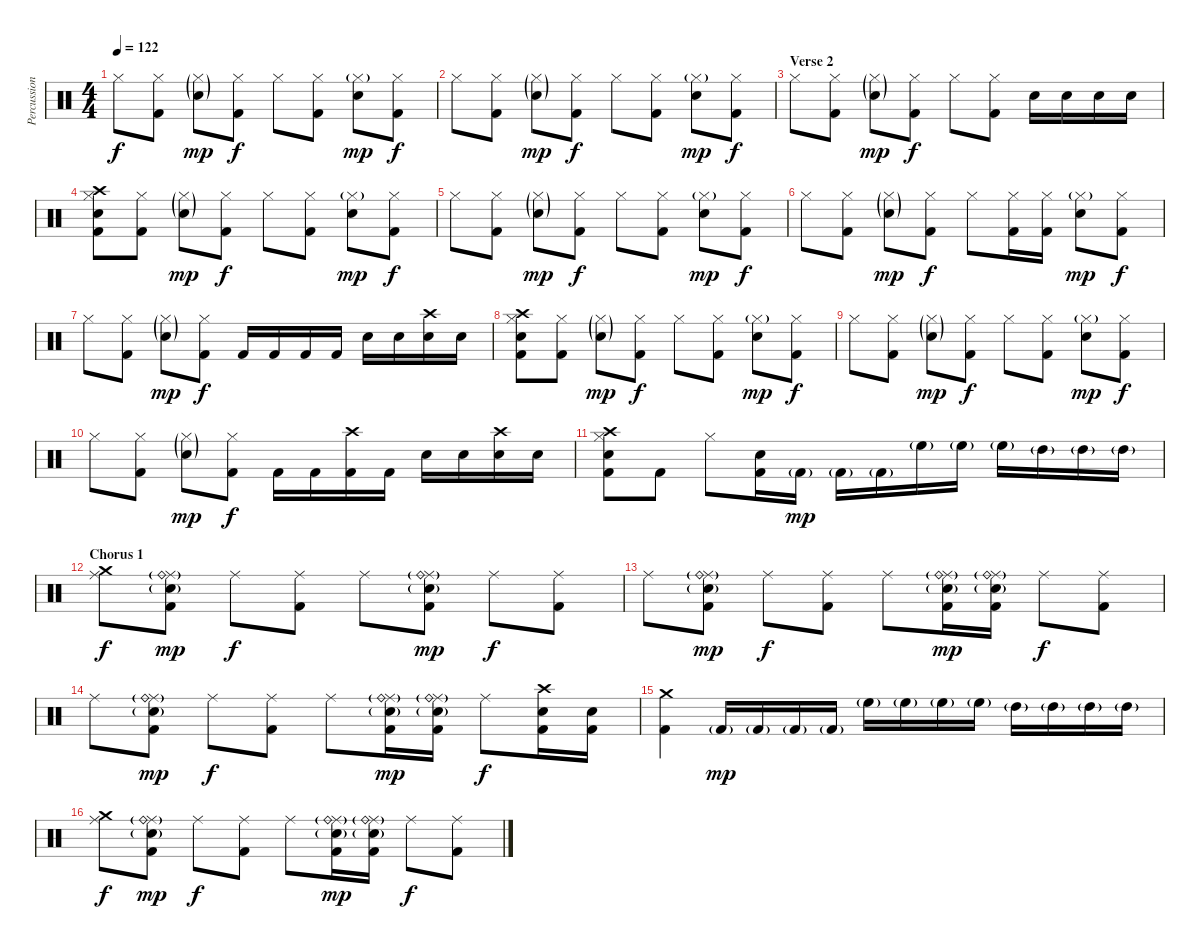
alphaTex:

\track ("Percussion" "Percussion") {instrument percussion}
\staff {score}
\articulation defaults
\ts (4 4)
\tempo 122
\clef neutral
\ks c "Hi-Hat (closed)".8{dy f}
("Hi-Hat (closed)" "Kick (hit) 2").8 ("Hi-Hat (closed)"{g} "Snare (hit) 2"{g}).8{dy mp} ("Hi-Hat (closed)" "Kick (hit) 2").8{dy f} "Hi-Hat (closed)".8 ("Hi-Hat (closed)" "Kick (hit) 2").8 ("Hi-Hat (closed)"{g} "Snare (hit) 2").8{dy mp} ("Hi-Hat (closed)" "Kick (hit) 2").8{dy f} |
"Hi-Hat (closed)".8 ("Hi-Hat (closed)" "Kick (hit) 2").8 ("Hi-Hat (closed)"{g} "Snare (hit) 2"{g}).8{dy mp} ("Hi-Hat (closed)" "Kick (hit) 2").8{dy f} "Hi-Hat (closed)".8 ("Hi-Hat (closed)" "Kick (hit) 2").8 ("Hi-Hat (closed)"{g} "Snare (hit) 2").8{dy mp} ("Hi-Hat (closed)" "Kick (hit) 2").8{dy f} |
\section ("" "Verse 2")
"Hi-Hat (closed)".8 ("Hi-Hat (closed)" "Kick (hit) 2").8 ("Hi-Hat (closed)"{g} "Snare (hit) 2"{g}).8{dy mp} ("Hi-Hat (closed)" "Kick (hit) 2").8{dy f} "Hi-Hat (closed)".8 ("Hi-Hat (closed)" "Kick (hit) 2").8 "Snare (hit) 2".16 "Snare (hit) 2".16 "Snare (hit) 2".16 "Snare (hit) 2".16 |
("Crash high (hit)" "Hi-Hat (closed)" "Snare (hit) 2" "Kick (hit) 2").8 ("Hi-Hat (closed)" "Kick (hit) 2").8 ("Hi-Hat (closed)"{g} "Snare (hit) 2"{g}).8{dy mp} ("Hi-Hat (closed)" "Kick (hit) 2").8{dy f} "Hi-Hat (closed)".8 ("Hi-Hat (closed)" "Kick (hit) 2").8 ("Hi-Hat (closed)"{g} "Snare (hit) 2").8{dy mp} ("Hi-Hat (closed)" "Kick (hit) 2").8{dy f} |
"Hi-Hat (closed)".8 ("Hi-Hat (closed)" "Kick (hit) 2").8 ("Hi-Hat (closed)"{g} "Snare (hit) 2"{g}).8{dy mp} ("Hi-Hat (closed)" "Kick (hit) 2").8{dy f} "Hi-Hat (closed)".8 ("Hi-Hat (closed)" "Kick (hit) 2").8 ("Hi-Hat (closed)"{g} "Snare (hit) 2").8{dy mp} ("Hi-Hat (closed)" "Kick (hit) 2").8{dy f} |
"Hi-Hat (closed)".8 ("Hi-Hat (closed)" "Kick (hit) 2").8 ("Hi-Hat (closed)"{g} "Snare (hit) 2"{g}).8{dy mp} ("Hi-Hat (closed)" "Kick (hit) 2").8{dy f} "Hi-Hat (closed)".8 ("Hi-Hat (closed)" "Kick (hit) 2").16 ("Hi-Hat (closed)" "Kick (hit) 2").16 ("Hi-Hat (closed)"{g} "Snare (hit) 2").8{dy mp} ("Hi-Hat (closed)" "Kick (hit) 2").8{dy f} |
"Hi-Hat (closed)".8 ("Hi-Hat (closed)" "Kick (hit) 2").8 ("Hi-Hat (closed)"{g} "Snare (hit) 2"{g}).8{dy mp} ("Hi-Hat (closed)" "Kick (hit) 2").8{dy f} "Kick (hit) 2".16 "Kick (hit) 2".16 "Kick (hit) 2".16 "Kick (hit) 2".16 "Snare (hit) 2".16 "Snare (hit) 2".16 ("Crash high (hit)" "Snare (hit) 2").16 "Snare (hit) 2".16 |
("Crash high (hit)" "Hi-Hat (closed)" "Snare (hit) 2" "Kick (hit) 2").8 ("Hi-Hat (closed)" "Kick (hit) 2").8 ("Hi-Hat (closed)"{g} "Snare (hit) 2"{g}).8{dy mp} ("Hi-Hat (closed)" "Kick (hit) 2").8{dy f} "Hi-Hat (closed)".8 ("Hi-Hat (closed)" "Kick (hit) 2").8 ("Hi-Hat (closed)"{g} "Snare (hit) 2").8{dy mp} ("Hi-Hat (closed)" "Kick (hit) 2").8{dy f} |
"Hi-Hat (closed)".8 ("Hi-Hat (closed)" "Kick (hit) 2").8 ("Hi-Hat (closed)"{g} "Snare (hit) 2"{g}).8{dy mp} ("Hi-Hat (closed)" "Kick (hit) 2").8{dy f} "Hi-Hat (closed)".8 ("Hi-Hat (closed)" "Kick (hit) 2").8 ("Hi-Hat (closed)"{g} "Snare (hit) 2").8{dy mp} ("Hi-Hat (closed)" "Kick (hit) 2").8{dy f} |
"Hi-Hat (closed)".8 ("Hi-Hat (closed)" "Kick (hit) 2").8 ("Hi-Hat (closed)"{g} "Snare (hit) 2"{g}).8{dy mp} ("Hi-Hat (closed)" "Kick (hit) 2").8{dy f} "Kick (hit) 2".16 "Kick (hit) 2".16 ("Crash high (hit)" "Kick (hit) 2").16 "Kick (hit) 2".16 "Snare (hit) 2".16 "Snare (hit) 2".16 ("Crash high (hit)" "Snare (hit) 2").16 "Snare (hit) 2".16 |
("Crash high (hit)" "Hi-Hat (closed)" "Snare (hit) 2" "Kick (hit) 2").8 "Kick (hit) 2".8 "Hi-Hat (closed)".8 ("Snare (hit) 2" "Kick (hit) 2").16 "Kick (hit) 2"{g}.16{dy mp} "Kick (hit) 2"{g}.16 "Kick (hit) 2"{g}.16 "High Floor Tom (hit)"{g}.16 "High Floor Tom (hit)"{g}.16 "High Floor Tom (hit)"{g}.16 "High Tom (hit)"{g}.16 "High Tom (hit)"{g}.16 "High Tom (hit)"{g}.16 |
\section ("" "Chorus 1")
("Crash medium (hit)" "Ride (middle)").8{dy f} ("Snare (hit) 2"{g} "Ride (middle)"{g} "Ride (bell)" "Kick (hit) 2").8{dy mp} "Ride (middle)".8{dy f} ("Ride (middle)" "Kick (hit) 2").8 "Ride (middle)".8 ("Snare (hit) 2"{g} "Ride (middle)"{g} "Ride (bell)" "Kick (hit) 2").8{dy mp} "Ride (middle)".8{dy f} ("Ride (middle)" "Kick (hit) 2").8 |
"Ride (middle)".8 ("Snare (hit) 2"{g} "Ride (middle)"{g} "Ride (bell)" "Kick (hit) 2").8{dy mp} "Ride (middle)".8{dy f} ("Ride (middle)" "Kick (hit) 2").8 "Ride (middle)".8 ("Snare (hit) 2"{g} "Ride (middle)"{g} "Ride (bell)" "Kick (hit) 2").16{dy mp} ("Snare (hit) 2"{g} "Ride (middle)"{g} "Ride (bell)" "Kick (hit) 2").16 "Ride (middle)".8{dy f} ("Ride (middle)" "Kick (hit) 2").8 |
"Ride (middle)".8 ("Snare (hit) 2"{g} "Ride (middle)"{g} "Ride (bell)" "Kick (hit) 2").8{dy mp} "Ride (middle)".8{dy f} ("Ride (middle)" "Kick (hit) 2").8 "Ride (middle)".8 ("Snare (hit) 2"{g} "Ride (middle)"{g} "Ride (bell)" "Kick (hit) 2").16{dy mp} ("Snare (hit) 2"{g} "Ride (middle)"{g} "Ride (bell)" "Kick (hit) 2").16 "Ride (middle)".8{dy f} ("Snare (hit) 2" "Crash high (hit)" "Kick (hit) 2").16 ("Snare (hit) 2" "Kick (hit) 2").16 |
("Crash medium (hit)" "Kick (hit) 2").4 "Kick (hit) 2"{g}.16{dy mp} "Kick (hit) 2"{g}.16 "Kick (hit) 2"{g}.16 "Kick (hit) 2"{g}.16 "High Floor Tom (hit)"{g}.16 "High Floor Tom (hit)"{g}.16 "High Floor Tom (hit)"{g}.16 "High Floor Tom (hit)"{g}.16 "High Tom (hit)"{g}.16 "High Tom (hit)"{g}.16 "High Tom (hit)"{g}.16 "High Tom (hit)"{g}.16 |
("Crash medium (hit)" "Ride (middle)").8{dy f} ("Snare (hit) 2"{g} "Ride (middle)"{g} "Ride (bell)" "Kick (hit) 2").8{dy mp} "Ride (middle)".8{dy f} ("Ride (middle)" "Kick (hit) 2").8 "Ride (middle)".8 ("Snare (hit) 2"{g} "Ride (middle)"{g} "Ride (bell)" "Kick (hit) 2").16{dy mp} ("Snare (hit) 2"{g} "Ride (middle)"{g} "Ride (bell)" "Kick (hit) 2").16 "Ride (middle)".8{dy f} ("Ride (middle)" "Kick (hit) 2").8
